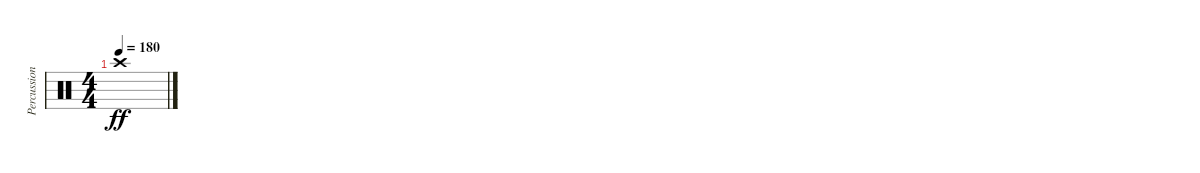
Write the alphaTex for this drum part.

\track ("Percussion" "Percussion") {instrument percussion}
\staff {score}
\articulation defaults
\ts (4 4)
\tempo 180
\clef neutral
\ks c "Crash high (hit)".1{dy ff}
